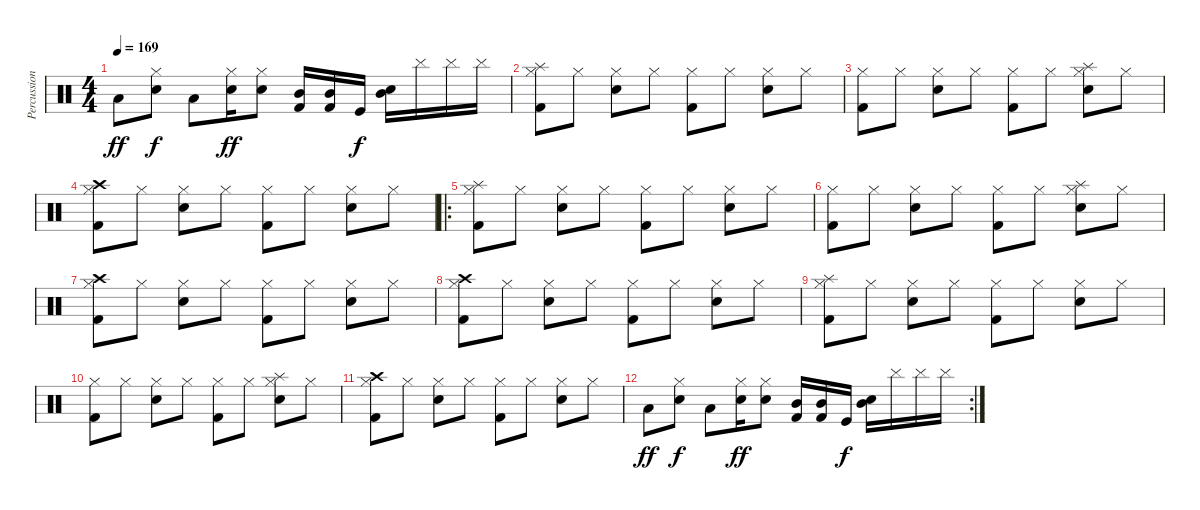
\track ("Percussion" "Percussion") {instrument percussion}
\staff {score}
\articulation defaults
\ts (4 4)
\tempo 169
\clef neutral
\ks c "Low Tom (hit)".8{dy ff}
("Hi-Hat (closed)" "Electric Snare (hit)").8{dy f} "Low Tom (hit)".8 ("Electric Snare (hit)" "Hi-Hat (closed)").16{dy ff} ("Electric Snare (hit)" "Hi-Hat (closed)").8 ("Kick (hit) 2" "Mid Tom (hit)").16 ("Kick (hit) 2" "Mid Tom (hit)").16 "Kick (hit)".16{dy f} ("Electric Snare (hit)" "Mid Tom (hit)").16 "Cymbal (hit)".16 "Cymbal (hit)".16 "Cymbal (hit)".16 |
("Hi-Hat (closed)" "Kick (hit) 2" "Splash (hit)").8 "Hi-Hat (closed)".8 ("Hi-Hat (closed)" "Snare (hit) 2").8 "Hi-Hat (closed)".8 ("Hi-Hat (closed)" "Kick (hit) 2").8 "Hi-Hat (closed)".8 ("Hi-Hat (closed)" "Snare (hit) 2").8 "Hi-Hat (closed)".8 |
("Hi-Hat (closed)" "Kick (hit) 2").8 "Hi-Hat (closed)".8 ("Hi-Hat (closed)" "Snare (hit) 2").8 "Hi-Hat (closed)".8 ("Hi-Hat (closed)" "Kick (hit) 2").8 "Hi-Hat (closed)".8 ("Hi-Hat (closed)" "Snare (hit) 2" "Splash (hit)").8 "Hi-Hat (closed)".8 |
("Hi-Hat (closed)" "Kick (hit) 2" "Crash high (hit)").8 "Hi-Hat (closed)".8 ("Hi-Hat (closed)" "Snare (hit) 2").8 "Hi-Hat (closed)".8 ("Hi-Hat (closed)" "Kick (hit) 2").8 "Hi-Hat (closed)".8 ("Hi-Hat (closed)" "Snare (hit) 2").8 "Hi-Hat (closed)".8 |
\ro
("Hi-Hat (closed)" "Kick (hit) 2" "Splash (hit)").8 "Hi-Hat (closed)".8 ("Hi-Hat (closed)" "Snare (hit) 2").8 "Hi-Hat (closed)".8 ("Hi-Hat (closed)" "Kick (hit) 2").8 "Hi-Hat (closed)".8 ("Hi-Hat (closed)" "Snare (hit) 2").8 "Hi-Hat (closed)".8 |
("Hi-Hat (closed)" "Kick (hit) 2").8 "Hi-Hat (closed)".8 ("Hi-Hat (closed)" "Snare (hit) 2").8 "Hi-Hat (closed)".8 ("Hi-Hat (closed)" "Kick (hit) 2").8 "Hi-Hat (closed)".8 ("Hi-Hat (closed)" "Snare (hit) 2" "Splash (hit)").8 "Hi-Hat (closed)".8 |
("Hi-Hat (closed)" "Kick (hit) 2" "Crash high (hit)").8 "Hi-Hat (closed)".8 ("Hi-Hat (closed)" "Snare (hit) 2").8 "Hi-Hat (closed)".8 ("Hi-Hat (closed)" "Kick (hit) 2").8 "Hi-Hat (closed)".8 ("Hi-Hat (closed)" "Snare (hit) 2").8 "Hi-Hat (closed)".8 |
("Hi-Hat (closed)" "Kick (hit) 2" "Crash high (hit)").8 "Hi-Hat (closed)".8 ("Hi-Hat (closed)" "Snare (hit) 2").8 "Hi-Hat (closed)".8 ("Hi-Hat (closed)" "Kick (hit) 2").8 "Hi-Hat (closed)".8 ("Hi-Hat (closed)" "Snare (hit) 2").8 "Hi-Hat (closed)".8 |
("Hi-Hat (closed)" "Kick (hit) 2" "Splash (hit)").8 "Hi-Hat (closed)".8 ("Hi-Hat (closed)" "Snare (hit) 2").8 "Hi-Hat (closed)".8 ("Hi-Hat (closed)" "Kick (hit) 2").8 "Hi-Hat (closed)".8 ("Hi-Hat (closed)" "Snare (hit) 2").8 "Hi-Hat (closed)".8 |
("Hi-Hat (closed)" "Kick (hit) 2").8 "Hi-Hat (closed)".8 ("Hi-Hat (closed)" "Snare (hit) 2").8 "Hi-Hat (closed)".8 ("Hi-Hat (closed)" "Kick (hit) 2").8 "Hi-Hat (closed)".8 ("Hi-Hat (closed)" "Snare (hit) 2" "Splash (hit)").8 "Hi-Hat (closed)".8 |
("Hi-Hat (closed)" "Kick (hit) 2" "Crash high (hit)").8 "Hi-Hat (closed)".8 ("Hi-Hat (closed)" "Snare (hit) 2").8 "Hi-Hat (closed)".8 ("Hi-Hat (closed)" "Kick (hit) 2").8 "Hi-Hat (closed)".8 ("Hi-Hat (closed)" "Snare (hit) 2").8 "Hi-Hat (closed)".8 |
\rc 2 "Low Tom (hit)".8{dy ff}
("Hi-Hat (closed)" "Electric Snare (hit)").8{dy f} "Low Tom (hit)".8 ("Electric Snare (hit)" "Hi-Hat (closed)").16{dy ff} ("Electric Snare (hit)" "Hi-Hat (closed)").8 ("Kick (hit) 2" "Mid Tom (hit)").16 ("Kick (hit) 2" "Mid Tom (hit)").16 "Kick (hit)".16{dy f} ("Electric Snare (hit)" "Mid Tom (hit)").16 "Cymbal (hit)".16 "Cymbal (hit)".16 "Cymbal (hit)".16
